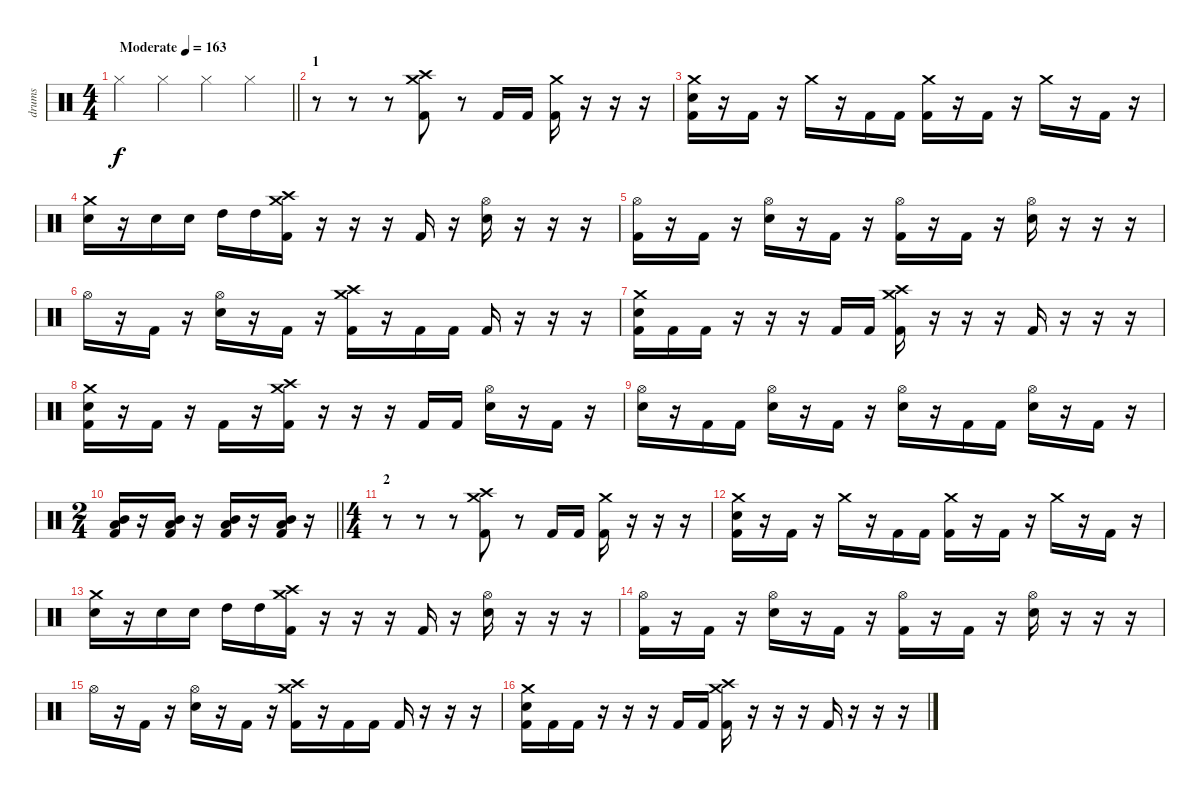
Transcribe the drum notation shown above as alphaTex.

\track ("drums" "drums") {instrument percussion}
\staff {score}
\articulation defaults
\ts (4 4)
\tempo (163 "Moderate")
\clef neutral
\barLineRight lightlight
\ks c "Hi-Hat (closed)".4{dy f} "Hi-Hat (closed)".4 "Hi-Hat (closed)".4 "Hi-Hat (closed)".4
|
\section ("" "1")
r.8 r.8 r.8 ("Crash medium (hit)" "Crash high (hit)" "Kick (hit) 2").8 r.8 "Kick (hit) 2".16 "Kick (hit) 2".16 ("Crash medium (hit)" "Kick (hit) 2").16 r.16 r.16 r.16 |
("Crash medium (hit)" "Electric Snare (hit)" "Kick (hit) 2").16 r.16 "Kick (hit) 2".16 r.16 "Crash medium (hit)".16 r.16 "Kick (hit) 2".16 "Kick (hit) 2".16 ("Crash medium (hit)" "Kick (hit) 2").16 r.16 "Kick (hit) 2".16 r.16 "Crash medium (hit)".16 r.16 "Kick (hit) 2".16 r.16 |
("Crash medium (hit)" "Electric Snare (hit)").16 r.16 "Electric Snare (hit)".16 "Electric Snare (hit)".16 "High Tom (hit)".16 "High Tom (hit)".16 ("Crash medium (hit)" "Crash high (hit)" "Kick (hit) 2").16 r.16 r.16 r.16 "Kick (hit) 2".16 r.16 ("Hi-Hat (open)" "Electric Snare (hit)").16 r.16 r.16 r.16 |
("Hi-Hat (open)" "Kick (hit) 2").16 r.16 "Kick (hit) 2".16 r.16 ("Hi-Hat (open)" "Electric Snare (hit)").16 r.16 "Kick (hit) 2".16 r.16 ("Hi-Hat (open)" "Kick (hit) 2").16 r.16 "Kick (hit) 2".16 r.16 ("Hi-Hat (open)" "Electric Snare (hit)").16 r.16 r.16 r.16 |
"Hi-Hat (open)".16 r.16 "Kick (hit) 2".16 r.16 ("Hi-Hat (open)" "Electric Snare (hit)").16 r.16 "Kick (hit) 2".16 r.16 ("Crash medium (hit)" "Crash high (hit)" "Kick (hit) 2").16 r.16 "Kick (hit) 2".16 "Kick (hit) 2".16 "Kick (hit) 2".16 r.16 r.16 r.16 |
("Crash medium (hit)" "Electric Snare (hit)" "Kick (hit) 2").16 "Kick (hit) 2".16 "Kick (hit) 2".16 r.16 r.16 r.16 "Kick (hit) 2".16 "Kick (hit) 2".16 ("Crash medium (hit)" "Crash high (hit)" "Kick (hit) 2").16 r.16 r.16 r.16 "Kick (hit) 2".16 r.16 r.16 r.16 |
("Crash medium (hit)" "Electric Snare (hit)" "Kick (hit) 2").16 r.16 "Kick (hit) 2".16 r.16 "Kick (hit) 2".16 r.16 ("Crash medium (hit)" "Crash high (hit)" "Kick (hit) 2").16 r.16 r.16 r.16 "Kick (hit) 2".16 "Kick (hit) 2".16 ("Hi-Hat (open)" "Electric Snare (hit)").16 r.16 "Kick (hit) 2".16 r.16 |
("Hi-Hat (open)" "Electric Snare (hit)").16 r.16 "Kick (hit) 2".16 "Kick (hit) 2".16 ("Hi-Hat (open)" "Electric Snare (hit)").16 r.16 "Kick (hit) 2".16 r.16 ("Hi-Hat (open)" "Electric Snare (hit)").16 r.16 "Kick (hit) 2".16 "Kick (hit) 2".16 ("Hi-Hat (open)" "Electric Snare (hit)").16 r.16 "Kick (hit) 2".16 r.16 |
\ts (2 4)
\barLineRight lightlight
("Mid Tom (hit)" "Low Floor Tom (hit)" "Kick (hit) 2").16 r.16 ("Mid Tom (hit)" "Low Floor Tom (hit)" "Kick (hit) 2").16 r.16 ("Mid Tom (hit)" "Low Floor Tom (hit)" "Kick (hit) 2").16 r.16 ("Mid Tom (hit)" "Low Floor Tom (hit)" "Kick (hit) 2").16 r.16 |
\ts (4 4)
\section ("" "2")
r.8 r.8 r.8 ("Crash medium (hit)" "Crash high (hit)" "Kick (hit) 2").8 r.8 "Kick (hit) 2".16 "Kick (hit) 2".16 ("Crash medium (hit)" "Kick (hit) 2").16 r.16 r.16 r.16 |
("Crash medium (hit)" "Electric Snare (hit)" "Kick (hit) 2").16 r.16 "Kick (hit) 2".16 r.16 "Crash medium (hit)".16 r.16 "Kick (hit) 2".16 "Kick (hit) 2".16 ("Crash medium (hit)" "Kick (hit) 2").16 r.16 "Kick (hit) 2".16 r.16 "Crash medium (hit)".16 r.16 "Kick (hit) 2".16 r.16 |
("Crash medium (hit)" "Electric Snare (hit)").16 r.16 "Electric Snare (hit)".16 "Electric Snare (hit)".16 "High Tom (hit)".16 "High Tom (hit)".16 ("Crash medium (hit)" "Crash high (hit)" "Kick (hit) 2").16 r.16 r.16 r.16 "Kick (hit) 2".16 r.16 ("Hi-Hat (open)" "Electric Snare (hit)").16 r.16 r.16 r.16 |
("Hi-Hat (open)" "Kick (hit) 2").16 r.16 "Kick (hit) 2".16 r.16 ("Hi-Hat (open)" "Electric Snare (hit)").16 r.16 "Kick (hit) 2".16 r.16 ("Hi-Hat (open)" "Kick (hit) 2").16 r.16 "Kick (hit) 2".16 r.16 ("Hi-Hat (open)" "Electric Snare (hit)").16 r.16 r.16 r.16 |
"Hi-Hat (open)".16 r.16 "Kick (hit) 2".16 r.16 ("Hi-Hat (open)" "Electric Snare (hit)").16 r.16 "Kick (hit) 2".16 r.16 ("Crash medium (hit)" "Crash high (hit)" "Kick (hit) 2").16 r.16 "Kick (hit) 2".16 "Kick (hit) 2".16 "Kick (hit) 2".16 r.16 r.16 r.16 |
("Crash medium (hit)" "Electric Snare (hit)" "Kick (hit) 2").16 "Kick (hit) 2".16 "Kick (hit) 2".16 r.16 r.16 r.16 "Kick (hit) 2".16 "Kick (hit) 2".16 ("Crash medium (hit)" "Crash high (hit)" "Kick (hit) 2").16 r.16 r.16 r.16 "Kick (hit) 2".16 r.16 r.16 r.16
